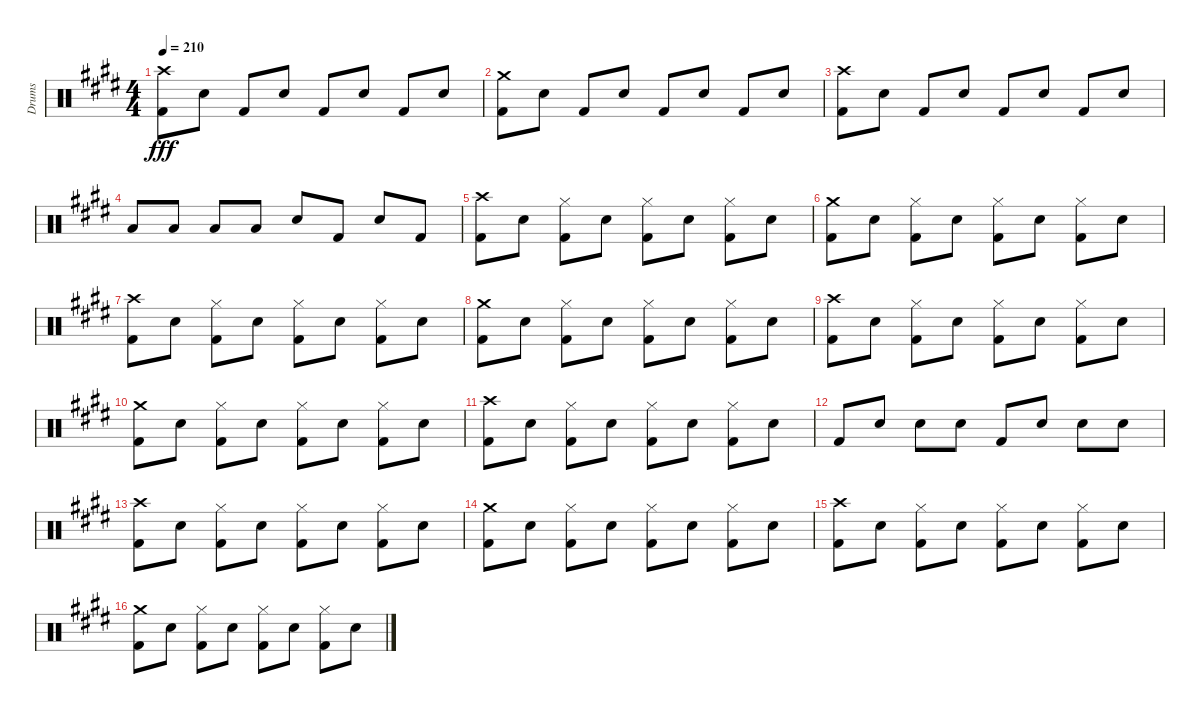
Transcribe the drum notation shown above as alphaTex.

\track ("Drums" "Drums") {instrument percussion}
\staff {score}
\articulation defaults
\ts (4 4)
\tempo 210
\clef neutral
\ks e
("Crash high (hit)" "Kick (hit) 2").8{dy fff} "Snare (hit) 2".8 "Kick (hit) 2".8 "Snare (hit) 2".8 "Kick (hit) 2".8 "Snare (hit) 2".8 "Kick (hit) 2".8 "Snare (hit) 2".8 |
("Crash medium (hit)" "Kick (hit) 2").8 "Snare (hit) 2".8 "Kick (hit) 2".8 "Snare (hit) 2".8 "Kick (hit) 2".8 "Snare (hit) 2".8 "Kick (hit) 2".8 "Snare (hit) 2".8 |
("Crash high (hit)" "Kick (hit) 2").8 "Snare (hit) 2".8 "Kick (hit) 2".8 "Snare (hit) 2".8 "Kick (hit) 2".8 "Snare (hit) 2".8 "Kick (hit) 2".8 "Snare (hit) 2".8 |
"Low Tom (hit)".8 "Low Tom (hit)".8 "Low Floor Tom (hit)".8 "Low Floor Tom (hit)".8 "Snare (hit) 2".8 "Kick (hit) 2".8 "Snare (hit) 2".8 "Kick (hit) 2".8 |
("Crash high (hit)" "Kick (hit) 2").8 "Snare (hit) 2".8 ("Hi-Hat (closed)" "Kick (hit) 2").8 "Snare (hit) 2".8 ("Hi-Hat (closed)" "Kick (hit) 2").8 "Snare (hit) 2".8 ("Hi-Hat (closed)" "Kick (hit) 2").8 "Snare (hit) 2".8 |
("Crash medium (hit)" "Kick (hit) 2").8 "Snare (hit) 2".8 ("Hi-Hat (closed)" "Kick (hit) 2").8 "Snare (hit) 2".8 ("Hi-Hat (closed)" "Kick (hit) 2").8 "Snare (hit) 2".8 ("Hi-Hat (closed)" "Kick (hit) 2").8 "Snare (hit) 2".8 |
("Crash high (hit)" "Kick (hit) 2").8 "Snare (hit) 2".8 ("Hi-Hat (closed)" "Kick (hit) 2").8 "Snare (hit) 2".8 ("Hi-Hat (closed)" "Kick (hit) 2").8 "Snare (hit) 2".8 ("Hi-Hat (closed)" "Kick (hit) 2").8 "Snare (hit) 2".8 |
("Crash medium (hit)" "Kick (hit) 2").8 "Snare (hit) 2".8 ("Hi-Hat (closed)" "Kick (hit) 2").8 "Snare (hit) 2".8 ("Hi-Hat (closed)" "Kick (hit) 2").8 "Snare (hit) 2".8 ("Hi-Hat (closed)" "Kick (hit) 2").8 "Snare (hit) 2".8 |
("Crash high (hit)" "Kick (hit) 2").8 "Snare (hit) 2".8 ("Hi-Hat (closed)" "Kick (hit) 2").8 "Snare (hit) 2".8 ("Hi-Hat (closed)" "Kick (hit) 2").8 "Snare (hit) 2".8 ("Hi-Hat (closed)" "Kick (hit) 2").8 "Snare (hit) 2".8 |
("Crash medium (hit)" "Kick (hit) 2").8 "Snare (hit) 2".8 ("Hi-Hat (closed)" "Kick (hit) 2").8 "Snare (hit) 2".8 ("Hi-Hat (closed)" "Kick (hit) 2").8 "Snare (hit) 2".8 ("Hi-Hat (closed)" "Kick (hit) 2").8 "Snare (hit) 2".8 |
("Crash high (hit)" "Kick (hit) 2").8 "Snare (hit) 2".8 ("Hi-Hat (closed)" "Kick (hit) 2").8 "Snare (hit) 2".8 ("Hi-Hat (closed)" "Kick (hit) 2").8 "Snare (hit) 2".8 ("Hi-Hat (closed)" "Kick (hit) 2").8 "Snare (hit) 2".8 |
"Kick (hit) 2".8 "Snare (hit) 2".8 "Snare (hit) 2".8 "Snare (hit) 2".8 "Kick (hit) 2".8 "Snare (hit) 2".8 "Snare (hit) 2".8 "Snare (hit) 2".8 |
("Crash high (hit)" "Kick (hit) 2").8 "Snare (hit) 2".8 ("Hi-Hat (closed)" "Kick (hit) 2").8 "Snare (hit) 2".8 ("Hi-Hat (closed)" "Kick (hit) 2").8 "Snare (hit) 2".8 ("Hi-Hat (closed)" "Kick (hit) 2").8 "Snare (hit) 2".8 |
("Crash medium (hit)" "Kick (hit) 2").8 "Snare (hit) 2".8 ("Hi-Hat (closed)" "Kick (hit) 2").8 "Snare (hit) 2".8 ("Hi-Hat (closed)" "Kick (hit) 2").8 "Snare (hit) 2".8 ("Hi-Hat (closed)" "Kick (hit) 2").8 "Snare (hit) 2".8 |
("Crash high (hit)" "Kick (hit) 2").8 "Snare (hit) 2".8 ("Hi-Hat (closed)" "Kick (hit) 2").8 "Snare (hit) 2".8 ("Hi-Hat (closed)" "Kick (hit) 2").8 "Snare (hit) 2".8 ("Hi-Hat (closed)" "Kick (hit) 2").8 "Snare (hit) 2".8 |
("Crash medium (hit)" "Kick (hit) 2").8 "Snare (hit) 2".8 ("Hi-Hat (closed)" "Kick (hit) 2").8 "Snare (hit) 2".8 ("Hi-Hat (closed)" "Kick (hit) 2").8 "Snare (hit) 2".8 ("Hi-Hat (closed)" "Kick (hit) 2").8 "Snare (hit) 2".8
